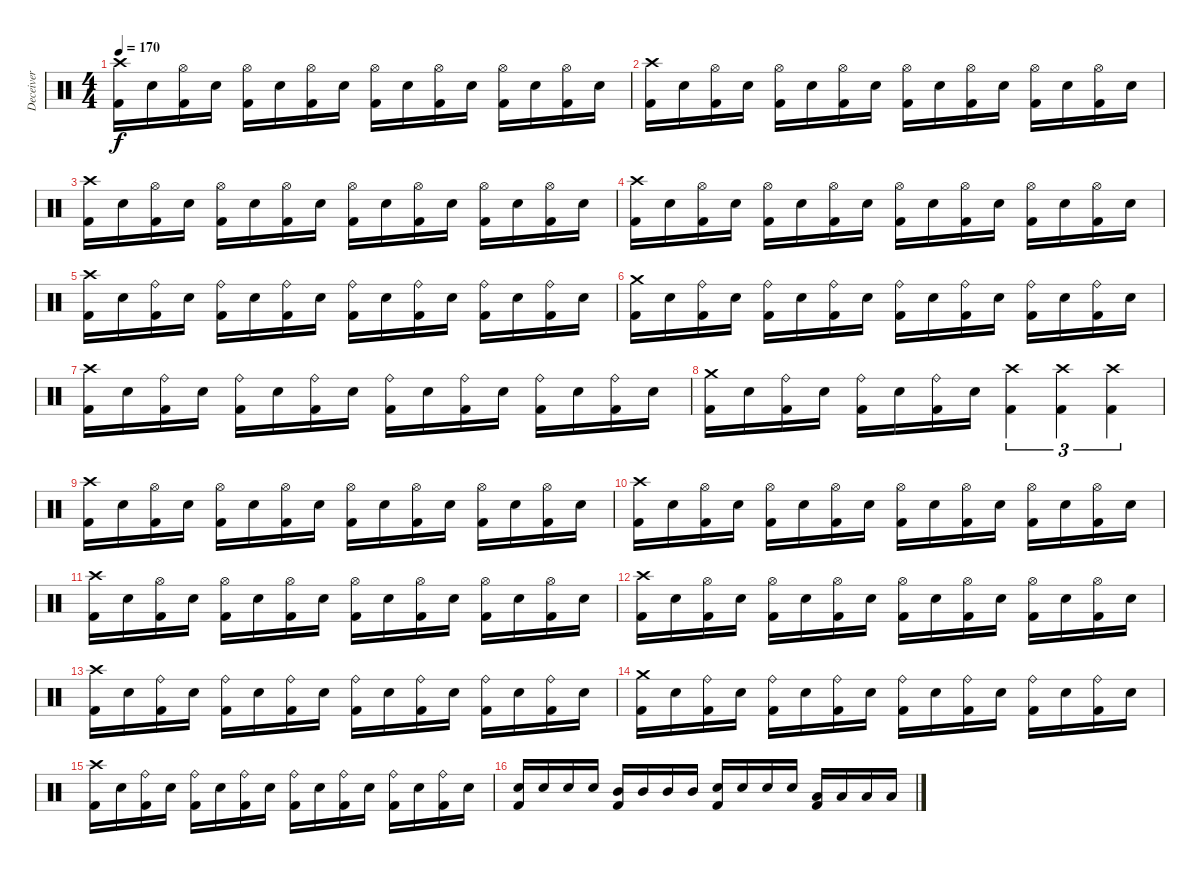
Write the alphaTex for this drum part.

\track ("Deceiver" "Deceiver") {instrument percussion}
\staff {score}
\articulation defaults
\ts (4 4)
\tempo 170
\clef neutral
\ks c
("Crash high (hit)" "Kick (hit) 2").16{dy f} "Electric Snare (hit)".16 ("Hi-Hat (open)" "Kick (hit) 2").16 "Electric Snare (hit)".16 ("Hi-Hat (open)" "Kick (hit) 2").16 "Electric Snare (hit)".16 ("Hi-Hat (open)" "Kick (hit) 2").16 "Electric Snare (hit)".16 ("Hi-Hat (open)" "Kick (hit) 2").16 "Electric Snare (hit)".16 ("Hi-Hat (open)" "Kick (hit) 2").16 "Electric Snare (hit)".16 ("Hi-Hat (open)" "Kick (hit) 2").16 "Electric Snare (hit)".16 ("Hi-Hat (open)" "Kick (hit) 2").16 "Electric Snare (hit)".16 |
("Crash high (hit)" "Kick (hit) 2").16 "Electric Snare (hit)".16 ("Hi-Hat (open)" "Kick (hit) 2").16 "Electric Snare (hit)".16 ("Hi-Hat (open)" "Kick (hit) 2").16 "Electric Snare (hit)".16 ("Hi-Hat (open)" "Kick (hit) 2").16 "Electric Snare (hit)".16 ("Hi-Hat (open)" "Kick (hit) 2").16 "Electric Snare (hit)".16 ("Hi-Hat (open)" "Kick (hit) 2").16 "Electric Snare (hit)".16 ("Hi-Hat (open)" "Kick (hit) 2").16 "Electric Snare (hit)".16 ("Hi-Hat (open)" "Kick (hit) 2").16 "Electric Snare (hit)".16 |
("Crash high (hit)" "Kick (hit) 2").16 "Electric Snare (hit)".16 ("Hi-Hat (open)" "Kick (hit) 2").16 "Electric Snare (hit)".16 ("Hi-Hat (open)" "Kick (hit) 2").16 "Electric Snare (hit)".16 ("Hi-Hat (open)" "Kick (hit) 2").16 "Electric Snare (hit)".16 ("Hi-Hat (open)" "Kick (hit) 2").16 "Electric Snare (hit)".16 ("Hi-Hat (open)" "Kick (hit) 2").16 "Electric Snare (hit)".16 ("Hi-Hat (open)" "Kick (hit) 2").16 "Electric Snare (hit)".16 ("Hi-Hat (open)" "Kick (hit) 2").16 "Electric Snare (hit)".16 |
("Crash high (hit)" "Kick (hit) 2").16 "Electric Snare (hit)".16 ("Hi-Hat (open)" "Kick (hit) 2").16 "Electric Snare (hit)".16 ("Hi-Hat (open)" "Kick (hit) 2").16 "Electric Snare (hit)".16 ("Hi-Hat (open)" "Kick (hit) 2").16 "Electric Snare (hit)".16 ("Hi-Hat (open)" "Kick (hit) 2").16 "Electric Snare (hit)".16 ("Hi-Hat (open)" "Kick (hit) 2").16 "Electric Snare (hit)".16 ("Hi-Hat (open)" "Kick (hit) 2").16 "Electric Snare (hit)".16 ("Hi-Hat (open)" "Kick (hit) 2").16 "Electric Snare (hit)".16 |
("Crash high (hit)" "Kick (hit) 2").16 "Electric Snare (hit)".16 ("Ride (bell)" "Kick (hit) 2").16 "Electric Snare (hit)".16 ("Ride (bell)" "Kick (hit) 2").16 "Electric Snare (hit)".16 ("Ride (bell)" "Kick (hit) 2").16 "Electric Snare (hit)".16 ("Ride (bell)" "Kick (hit) 2").16 "Electric Snare (hit)".16 ("Ride (bell)" "Kick (hit) 2").16 "Electric Snare (hit)".16 ("Ride (bell)" "Kick (hit) 2").16 "Electric Snare (hit)".16 ("Ride (bell)" "Kick (hit) 2").16 "Electric Snare (hit)".16 |
("Crash medium (hit)" "Kick (hit) 2").16 "Electric Snare (hit)".16 ("Ride (bell)" "Kick (hit) 2").16 "Electric Snare (hit)".16 ("Ride (bell)" "Kick (hit) 2").16 "Electric Snare (hit)".16 ("Ride (bell)" "Kick (hit) 2").16 "Electric Snare (hit)".16 ("Ride (bell)" "Kick (hit) 2").16 "Electric Snare (hit)".16 ("Ride (bell)" "Kick (hit) 2").16 "Electric Snare (hit)".16 ("Ride (bell)" "Kick (hit) 2").16 "Electric Snare (hit)".16 ("Ride (bell)" "Kick (hit) 2").16 "Electric Snare (hit)".16 |
("Crash high (hit)" "Kick (hit) 2").16 "Electric Snare (hit)".16 ("Ride (bell)" "Kick (hit) 2").16 "Electric Snare (hit)".16 ("Ride (bell)" "Kick (hit) 2").16 "Electric Snare (hit)".16 ("Ride (bell)" "Kick (hit) 2").16 "Electric Snare (hit)".16 ("Ride (bell)" "Kick (hit) 2").16 "Electric Snare (hit)".16 ("Ride (bell)" "Kick (hit) 2").16 "Electric Snare (hit)".16 ("Ride (bell)" "Kick (hit) 2").16 "Electric Snare (hit)".16 ("Ride (bell)" "Kick (hit) 2").16 "Electric Snare (hit)".16 |
("Crash medium (hit)" "Kick (hit) 2").16 "Electric Snare (hit)".16 ("Ride (bell)" "Kick (hit) 2").16 "Electric Snare (hit)".16 ("Ride (bell)" "Kick (hit) 2").16 "Electric Snare (hit)".16 ("Ride (bell)" "Kick (hit) 2").16 "Electric Snare (hit)".16 ("Crash high (hit)" "Kick (hit) 2").4{tu (3 2)} ("Crash high (hit)" "Kick (hit) 2").4{tu (3 2)} ("Crash high (hit)" "Kick (hit) 2").4{tu (3 2)} |
("Crash high (hit)" "Kick (hit) 2").16 "Electric Snare (hit)".16 ("Hi-Hat (open)" "Kick (hit) 2").16 "Electric Snare (hit)".16 ("Hi-Hat (open)" "Kick (hit) 2").16 "Electric Snare (hit)".16 ("Hi-Hat (open)" "Kick (hit) 2").16 "Electric Snare (hit)".16 ("Hi-Hat (open)" "Kick (hit) 2").16 "Electric Snare (hit)".16 ("Hi-Hat (open)" "Kick (hit) 2").16 "Electric Snare (hit)".16 ("Hi-Hat (open)" "Kick (hit) 2").16 "Electric Snare (hit)".16 ("Hi-Hat (open)" "Kick (hit) 2").16 "Electric Snare (hit)".16 |
("Crash high (hit)" "Kick (hit) 2").16 "Electric Snare (hit)".16 ("Hi-Hat (open)" "Kick (hit) 2").16 "Electric Snare (hit)".16 ("Hi-Hat (open)" "Kick (hit) 2").16 "Electric Snare (hit)".16 ("Hi-Hat (open)" "Kick (hit) 2").16 "Electric Snare (hit)".16 ("Hi-Hat (open)" "Kick (hit) 2").16 "Electric Snare (hit)".16 ("Hi-Hat (open)" "Kick (hit) 2").16 "Electric Snare (hit)".16 ("Hi-Hat (open)" "Kick (hit) 2").16 "Electric Snare (hit)".16 ("Hi-Hat (open)" "Kick (hit) 2").16 "Electric Snare (hit)".16 |
("Crash high (hit)" "Kick (hit) 2").16 "Electric Snare (hit)".16 ("Hi-Hat (open)" "Kick (hit) 2").16 "Electric Snare (hit)".16 ("Hi-Hat (open)" "Kick (hit) 2").16 "Electric Snare (hit)".16 ("Hi-Hat (open)" "Kick (hit) 2").16 "Electric Snare (hit)".16 ("Hi-Hat (open)" "Kick (hit) 2").16 "Electric Snare (hit)".16 ("Hi-Hat (open)" "Kick (hit) 2").16 "Electric Snare (hit)".16 ("Hi-Hat (open)" "Kick (hit) 2").16 "Electric Snare (hit)".16 ("Hi-Hat (open)" "Kick (hit) 2").16 "Electric Snare (hit)".16 |
("Crash high (hit)" "Kick (hit) 2").16 "Electric Snare (hit)".16 ("Hi-Hat (open)" "Kick (hit) 2").16 "Electric Snare (hit)".16 ("Hi-Hat (open)" "Kick (hit) 2").16 "Electric Snare (hit)".16 ("Hi-Hat (open)" "Kick (hit) 2").16 "Electric Snare (hit)".16 ("Hi-Hat (open)" "Kick (hit) 2").16 "Electric Snare (hit)".16 ("Hi-Hat (open)" "Kick (hit) 2").16 "Electric Snare (hit)".16 ("Hi-Hat (open)" "Kick (hit) 2").16 "Electric Snare (hit)".16 ("Hi-Hat (open)" "Kick (hit) 2").16 "Electric Snare (hit)".16 |
("Crash high (hit)" "Kick (hit) 2").16 "Electric Snare (hit)".16 ("Ride (bell)" "Kick (hit) 2").16 "Electric Snare (hit)".16 ("Ride (bell)" "Kick (hit) 2").16 "Electric Snare (hit)".16 ("Ride (bell)" "Kick (hit) 2").16 "Electric Snare (hit)".16 ("Ride (bell)" "Kick (hit) 2").16 "Electric Snare (hit)".16 ("Ride (bell)" "Kick (hit) 2").16 "Electric Snare (hit)".16 ("Ride (bell)" "Kick (hit) 2").16 "Electric Snare (hit)".16 ("Ride (bell)" "Kick (hit) 2").16 "Electric Snare (hit)".16 |
("Crash medium (hit)" "Kick (hit) 2").16 "Electric Snare (hit)".16 ("Ride (bell)" "Kick (hit) 2").16 "Electric Snare (hit)".16 ("Ride (bell)" "Kick (hit) 2").16 "Electric Snare (hit)".16 ("Ride (bell)" "Kick (hit) 2").16 "Electric Snare (hit)".16 ("Ride (bell)" "Kick (hit) 2").16 "Electric Snare (hit)".16 ("Ride (bell)" "Kick (hit) 2").16 "Electric Snare (hit)".16 ("Ride (bell)" "Kick (hit) 2").16 "Electric Snare (hit)".16 ("Ride (bell)" "Kick (hit) 2").16 "Electric Snare (hit)".16 |
("Crash high (hit)" "Kick (hit) 2").16 "Electric Snare (hit)".16 ("Ride (bell)" "Kick (hit) 2").16 "Electric Snare (hit)".16 ("Ride (bell)" "Kick (hit) 2").16 "Electric Snare (hit)".16 ("Ride (bell)" "Kick (hit) 2").16 "Electric Snare (hit)".16 ("Ride (bell)" "Kick (hit) 2").16 "Electric Snare (hit)".16 ("Ride (bell)" "Kick (hit) 2").16 "Electric Snare (hit)".16 ("Ride (bell)" "Kick (hit) 2").16 "Electric Snare (hit)".16 ("Ride (bell)" "Kick (hit) 2").16 "Electric Snare (hit)".16 |
("Electric Snare (hit)" "Kick (hit) 2").16 "Electric Snare (hit)".16 "Electric Snare (hit)".16 "Electric Snare (hit)".16 ("Mid Tom (hit)" "Kick (hit) 2").16 "Mid Tom (hit)".16 "Mid Tom (hit)".16 "Mid Tom (hit)".16 ("Electric Snare (hit)" "Kick (hit) 2").16 "Electric Snare (hit)".16 "Electric Snare (hit)".16 "Electric Snare (hit)".16 ("Low Tom (hit)" "Kick (hit) 2").16 "Low Tom (hit)".16 "Low Tom (hit)".16 "Low Tom (hit)".16
